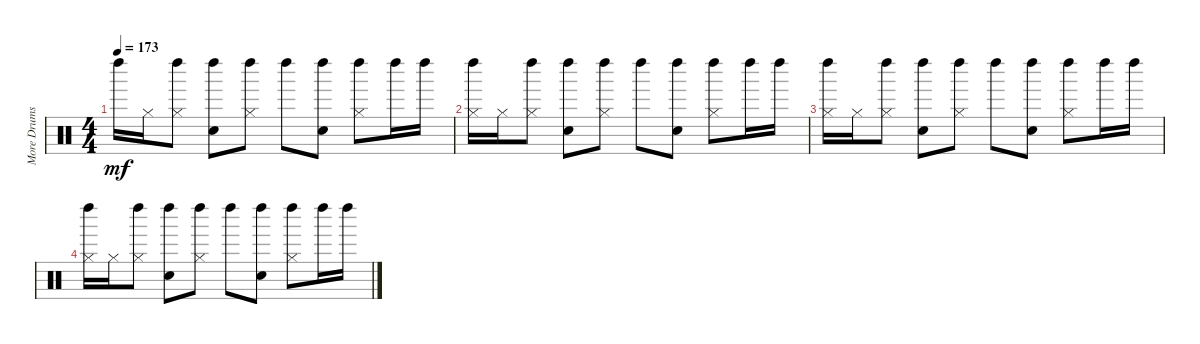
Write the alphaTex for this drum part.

\track ("More Drums" "More Drums") {instrument percussion}
\staff {score}
\articulation defaults
\ts (4 4)
\tempo 173
\clef neutral
\ks c "Left Maraca (hit)".16{dy mf} "Hi-Hat (closed)".16
("Hi-Hat (closed)" "Left Maraca (hit)").8 ("Snare (hit) 2" "Left Maraca (hit)").8 ("Hi-Hat (closed)" "Left Maraca (hit)").8 "Left Maraca (hit)".8 ("Snare (hit) 2" "Left Maraca (hit)").8 ("Hi-Hat (closed)" "Left Maraca (hit)").8 "Left Maraca (hit)".16 "Left Maraca (hit)".16 |
("Hi-Hat (closed)" "Left Maraca (hit)").16 "Hi-Hat (closed)".16 ("Hi-Hat (closed)" "Left Maraca (hit)").8 ("Snare (hit) 2" "Left Maraca (hit)").8 ("Hi-Hat (closed)" "Left Maraca (hit)").8 "Left Maraca (hit)".8 ("Snare (hit) 2" "Left Maraca (hit)").8 ("Hi-Hat (closed)" "Left Maraca (hit)").8 "Left Maraca (hit)".16 "Left Maraca (hit)".16 |
("Hi-Hat (closed)" "Left Maraca (hit)").16 "Hi-Hat (closed)".16 ("Hi-Hat (closed)" "Left Maraca (hit)").8 ("Snare (hit) 2" "Left Maraca (hit)").8 ("Hi-Hat (closed)" "Left Maraca (hit)").8 "Left Maraca (hit)".8 ("Snare (hit) 2" "Left Maraca (hit)").8 ("Hi-Hat (closed)" "Left Maraca (hit)").8 "Left Maraca (hit)".16 "Left Maraca (hit)".16 |
("Hi-Hat (closed)" "Left Maraca (hit)").16 "Hi-Hat (closed)".16 ("Hi-Hat (closed)" "Left Maraca (hit)").8 ("Snare (hit) 2" "Left Maraca (hit)").8 ("Hi-Hat (closed)" "Left Maraca (hit)").8 "Left Maraca (hit)".8 ("Snare (hit) 2" "Left Maraca (hit)").8 ("Hi-Hat (closed)" "Left Maraca (hit)").8 "Left Maraca (hit)".16 "Left Maraca (hit)".16
